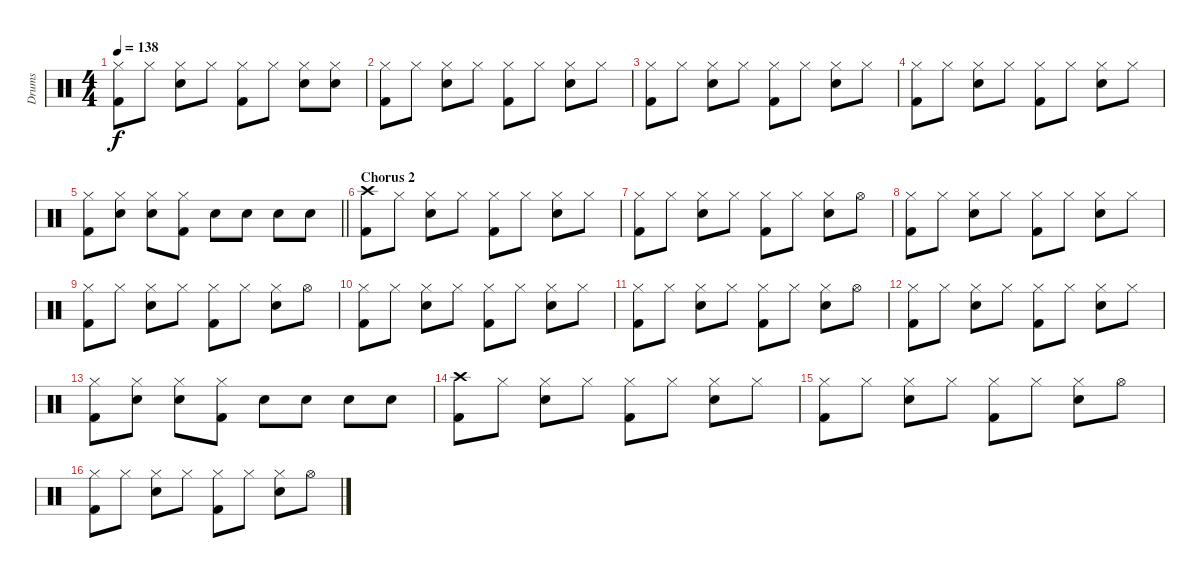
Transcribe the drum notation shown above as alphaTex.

\track ("Drums" "Drums") {instrument percussion}
\staff {score}
\articulation defaults
\ts (4 4)
\tempo 138
\clef neutral
\ks c
("Hi-Hat (closed)" "Kick (hit) 2").8{dy f} "Hi-Hat (closed)".8 ("Hi-Hat (closed)" "Snare (hit) 2").8 "Hi-Hat (closed)".8 ("Hi-Hat (closed)" "Kick (hit) 2").8 "Hi-Hat (closed)".8 ("Hi-Hat (closed)" "Snare (hit) 2").8 ("Hi-Hat (closed)" "Snare (hit) 2").8 |
("Hi-Hat (closed)" "Kick (hit) 2").8 "Hi-Hat (closed)".8 ("Hi-Hat (closed)" "Snare (hit) 2").8 "Hi-Hat (closed)".8 ("Hi-Hat (closed)" "Kick (hit) 2").8 "Hi-Hat (closed)".8 ("Hi-Hat (closed)" "Snare (hit) 2").8 "Hi-Hat (closed)".8 |
("Hi-Hat (closed)" "Kick (hit) 2").8 "Hi-Hat (closed)".8 ("Hi-Hat (closed)" "Snare (hit) 2").8 "Hi-Hat (closed)".8 ("Hi-Hat (closed)" "Kick (hit) 2").8 "Hi-Hat (closed)".8 ("Hi-Hat (closed)" "Snare (hit) 2").8 "Hi-Hat (closed)".8 |
("Hi-Hat (closed)" "Kick (hit) 2").8 "Hi-Hat (closed)".8 ("Hi-Hat (closed)" "Snare (hit) 2").8 "Hi-Hat (closed)".8 ("Hi-Hat (closed)" "Kick (hit) 2").8 "Hi-Hat (closed)".8 ("Hi-Hat (closed)" "Snare (hit) 2").8 "Hi-Hat (closed)".8 |
\barLineRight lightlight
("Hi-Hat (closed)" "Kick (hit) 2").8 ("Hi-Hat (closed)" "Snare (hit) 2").8 ("Hi-Hat (closed)" "Snare (hit) 2").8 ("Hi-Hat (closed)" "Kick (hit) 2").8 "Snare (hit) 2".8 "Snare (hit) 2".8 "Snare (hit) 2".8 "Snare (hit) 2".8 |
\section ("" "Chorus 2")
("Crash high (hit)" "Kick (hit) 2").8 "Hi-Hat (closed)".8 ("Hi-Hat (closed)" "Snare (hit) 2").8 "Hi-Hat (closed)".8 ("Hi-Hat (closed)" "Kick (hit) 2").8 "Hi-Hat (closed)".8 ("Hi-Hat (closed)" "Snare (hit) 2").8 "Hi-Hat (closed)".8 |
("Hi-Hat (closed)" "Kick (hit) 2").8 "Hi-Hat (closed)".8 ("Hi-Hat (closed)" "Snare (hit) 2").8 "Hi-Hat (closed)".8 ("Hi-Hat (closed)" "Kick (hit) 2").8 "Hi-Hat (closed)".8 ("Hi-Hat (closed)" "Snare (hit) 2").8 "Hi-Hat (open)".8 |
("Hi-Hat (closed)" "Kick (hit) 2").8 "Hi-Hat (closed)".8 ("Hi-Hat (closed)" "Snare (hit) 2").8 "Hi-Hat (closed)".8 ("Hi-Hat (closed)" "Kick (hit) 2").8 "Hi-Hat (closed)".8 ("Hi-Hat (closed)" "Snare (hit) 2").8 "Hi-Hat (closed)".8 |
("Hi-Hat (closed)" "Kick (hit) 2").8 "Hi-Hat (closed)".8 ("Hi-Hat (closed)" "Snare (hit) 2").8 "Hi-Hat (closed)".8 ("Hi-Hat (closed)" "Kick (hit) 2").8 "Hi-Hat (closed)".8 ("Hi-Hat (closed)" "Snare (hit) 2").8 "Hi-Hat (open)".8 |
("Hi-Hat (closed)" "Kick (hit) 2").8 "Hi-Hat (closed)".8 ("Hi-Hat (closed)" "Snare (hit) 2").8 "Hi-Hat (closed)".8 ("Hi-Hat (closed)" "Kick (hit) 2").8 "Hi-Hat (closed)".8 ("Hi-Hat (closed)" "Snare (hit) 2").8 "Hi-Hat (closed)".8 |
("Hi-Hat (closed)" "Kick (hit) 2").8 "Hi-Hat (closed)".8 ("Hi-Hat (closed)" "Snare (hit) 2").8 "Hi-Hat (closed)".8 ("Hi-Hat (closed)" "Kick (hit) 2").8 "Hi-Hat (closed)".8 ("Hi-Hat (closed)" "Snare (hit) 2").8 "Hi-Hat (open)".8 |
("Hi-Hat (closed)" "Kick (hit) 2").8 "Hi-Hat (closed)".8 ("Hi-Hat (closed)" "Snare (hit) 2").8 "Hi-Hat (closed)".8 ("Hi-Hat (closed)" "Kick (hit) 2").8 "Hi-Hat (closed)".8 ("Hi-Hat (closed)" "Snare (hit) 2").8 "Hi-Hat (closed)".8 |
("Hi-Hat (closed)" "Kick (hit) 2").8 ("Hi-Hat (closed)" "Snare (hit) 2").8 ("Hi-Hat (closed)" "Snare (hit) 2").8 ("Hi-Hat (closed)" "Kick (hit) 2").8 "Snare (hit) 2".8 "Snare (hit) 2".8 "Snare (hit) 2".8 "Snare (hit) 2".8 |
("Crash high (hit)" "Kick (hit) 2").8 "Hi-Hat (closed)".8 ("Hi-Hat (closed)" "Snare (hit) 2").8 "Hi-Hat (closed)".8 ("Hi-Hat (closed)" "Kick (hit) 2").8 "Hi-Hat (closed)".8 ("Hi-Hat (closed)" "Snare (hit) 2").8 "Hi-Hat (closed)".8 |
("Hi-Hat (closed)" "Kick (hit) 2").8 "Hi-Hat (closed)".8 ("Hi-Hat (closed)" "Snare (hit) 2").8 "Hi-Hat (closed)".8 ("Hi-Hat (closed)" "Kick (hit) 2").8 "Hi-Hat (closed)".8 ("Hi-Hat (closed)" "Snare (hit) 2").8 "Hi-Hat (open)".8 |
("Hi-Hat (closed)" "Kick (hit) 2").8 "Hi-Hat (closed)".8 ("Hi-Hat (closed)" "Snare (hit) 2").8 "Hi-Hat (closed)".8 ("Hi-Hat (closed)" "Kick (hit) 2").8 "Hi-Hat (closed)".8 ("Hi-Hat (closed)" "Snare (hit) 2").8 "Hi-Hat (open)".8
